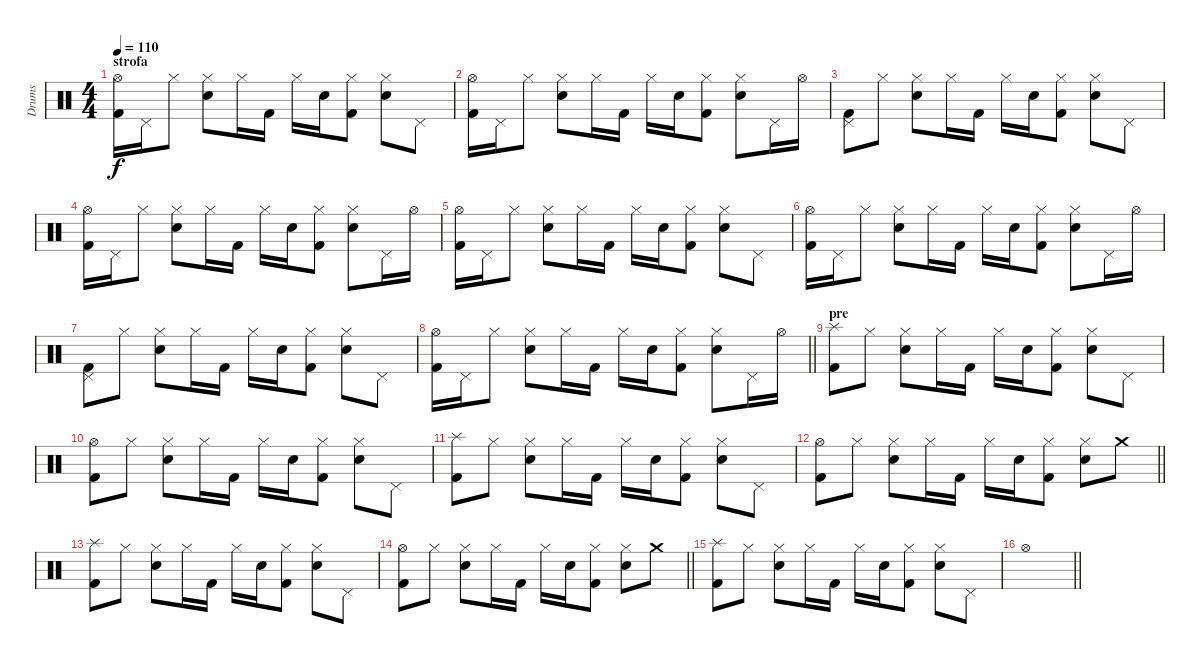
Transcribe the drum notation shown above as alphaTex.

\track ("Drums" "Drums") {instrument percussion}
\staff {score}
\articulation defaults
\ts (4 4)
\section ("" "strofa")
\tempo 110
\clef neutral
\ks c
("Hi-Hat (open)" "Kick (hit) 2").16{dy f} "Pedal Hi-Hat (hit)".16 "Hi-Hat (closed)".8 ("Hi-Hat (closed)" "Electric Snare (hit)").8 "Hi-Hat (closed)".16 "Kick (hit) 2".16 "Hi-Hat (closed)".16 "Electric Snare (hit)".16 ("Hi-Hat (closed)" "Kick (hit) 2").8 ("Hi-Hat (closed)" "Electric Snare (hit)").8 "Pedal Hi-Hat (hit)".8 |
("Hi-Hat (open)" "Kick (hit) 2").16 "Pedal Hi-Hat (hit)".16 "Hi-Hat (closed)".8 ("Hi-Hat (closed)" "Electric Snare (hit)").8 "Hi-Hat (closed)".16 "Kick (hit) 2".16 "Hi-Hat (closed)".16 "Electric Snare (hit)".16 ("Hi-Hat (closed)" "Kick (hit) 2").8 ("Hi-Hat (closed)" "Electric Snare (hit)").8 "Pedal Hi-Hat (hit)".16 "Hi-Hat (open)".16 |
("Pedal Hi-Hat (hit)" "Kick (hit) 2").8 "Hi-Hat (closed)".8 ("Hi-Hat (closed)" "Electric Snare (hit)").8 "Hi-Hat (closed)".16 "Kick (hit) 2".16 "Hi-Hat (closed)".16 "Electric Snare (hit)".16 ("Hi-Hat (closed)" "Kick (hit) 2").8 ("Hi-Hat (closed)" "Electric Snare (hit)").8 "Pedal Hi-Hat (hit)".8 |
("Hi-Hat (open)" "Kick (hit) 2").16 "Pedal Hi-Hat (hit)".16 "Hi-Hat (closed)".8 ("Hi-Hat (closed)" "Electric Snare (hit)").8 "Hi-Hat (closed)".16 "Kick (hit) 2".16 "Hi-Hat (closed)".16 "Electric Snare (hit)".16 ("Hi-Hat (closed)" "Kick (hit) 2").8 ("Hi-Hat (closed)" "Electric Snare (hit)").8 "Pedal Hi-Hat (hit)".16 "Hi-Hat (open)".16 |
("Hi-Hat (open)" "Kick (hit) 2").16 "Pedal Hi-Hat (hit)".16 "Hi-Hat (closed)".8 ("Hi-Hat (closed)" "Electric Snare (hit)").8 "Hi-Hat (closed)".16 "Kick (hit) 2".16 "Hi-Hat (closed)".16 "Electric Snare (hit)".16 ("Hi-Hat (closed)" "Kick (hit) 2").8 ("Hi-Hat (closed)" "Electric Snare (hit)").8 "Pedal Hi-Hat (hit)".8 |
("Hi-Hat (open)" "Kick (hit) 2").16 "Pedal Hi-Hat (hit)".16 "Hi-Hat (closed)".8 ("Hi-Hat (closed)" "Electric Snare (hit)").8 "Hi-Hat (closed)".16 "Kick (hit) 2".16 "Hi-Hat (closed)".16 "Electric Snare (hit)".16 ("Hi-Hat (closed)" "Kick (hit) 2").8 ("Hi-Hat (closed)" "Electric Snare (hit)").8 "Pedal Hi-Hat (hit)".16 "Hi-Hat (open)".16 |
("Pedal Hi-Hat (hit)" "Kick (hit) 2").8 "Hi-Hat (closed)".8 ("Hi-Hat (closed)" "Electric Snare (hit)").8 "Hi-Hat (closed)".16 "Kick (hit) 2".16 "Hi-Hat (closed)".16 "Electric Snare (hit)".16 ("Hi-Hat (closed)" "Kick (hit) 2").8 ("Hi-Hat (closed)" "Electric Snare (hit)").8 "Pedal Hi-Hat (hit)".8 |
\barLineRight lightlight
("Hi-Hat (open)" "Kick (hit) 2").16 "Pedal Hi-Hat (hit)".16 "Hi-Hat (closed)".8 ("Hi-Hat (closed)" "Electric Snare (hit)").8 "Hi-Hat (closed)".16 "Kick (hit) 2".16 "Hi-Hat (closed)".16 "Electric Snare (hit)".16 ("Hi-Hat (closed)" "Kick (hit) 2").8 ("Hi-Hat (closed)" "Electric Snare (hit)").8 "Pedal Hi-Hat (hit)".16 "Hi-Hat (open)".16 |
\section ("" "pre")
("Splash (hit)" "Kick (hit) 2").8 "Hi-Hat (closed)".8 ("Hi-Hat (closed)" "Snare (hit) 2").8 "Hi-Hat (closed)".16 "Kick (hit) 2".16 "Hi-Hat (closed)".16 "Snare (hit) 2".16 ("Hi-Hat (closed)" "Kick (hit) 2").8 ("Hi-Hat (closed)" "Snare (hit) 2").8 "Pedal Hi-Hat (hit)".8 |
("Hi-Hat (open)" "Kick (hit) 2").8 "Hi-Hat (closed)".8 ("Hi-Hat (closed)" "Snare (hit) 2").8 "Hi-Hat (closed)".16 "Kick (hit) 2".16 "Hi-Hat (closed)".16 "Snare (hit) 2".16 ("Hi-Hat (closed)" "Kick (hit) 2").8 ("Hi-Hat (closed)" "Snare (hit) 2").8 "Pedal Hi-Hat (hit)".8 |
("Splash (hit)" "Kick (hit) 2").8 "Hi-Hat (closed)".8 ("Hi-Hat (closed)" "Snare (hit) 2").8 "Hi-Hat (closed)".16 "Kick (hit) 2".16 "Hi-Hat (closed)".16 "Snare (hit) 2".16 ("Hi-Hat (closed)" "Kick (hit) 2").8 ("Hi-Hat (closed)" "Snare (hit) 2").8 "Pedal Hi-Hat (hit)".8 |
\barLineRight lightlight
("Hi-Hat (open)" "Kick (hit) 2").8 "Hi-Hat (closed)".8 ("Hi-Hat (closed)" "Snare (hit) 2").8 "Hi-Hat (closed)".16 "Kick (hit) 2".16 "Hi-Hat (closed)".16 "Snare (hit) 2".16 ("Hi-Hat (closed)" "Kick (hit) 2").8 ("Hi-Hat (closed)" "Snare (hit) 2").8 "Crash medium (hit)".8 |
("Splash (hit)" "Kick (hit) 2").8 "Hi-Hat (closed)".8 ("Hi-Hat (closed)" "Snare (hit) 2").8 "Hi-Hat (closed)".16 "Kick (hit) 2".16 "Hi-Hat (closed)".16 "Snare (hit) 2".16 ("Hi-Hat (closed)" "Kick (hit) 2").8 ("Hi-Hat (closed)" "Snare (hit) 2").8 "Pedal Hi-Hat (hit)".8 |
\barLineRight lightlight
("Hi-Hat (open)" "Kick (hit) 2").8 "Hi-Hat (closed)".8 ("Hi-Hat (closed)" "Snare (hit) 2").8 "Hi-Hat (closed)".16 "Kick (hit) 2".16 "Hi-Hat (closed)".16 "Snare (hit) 2".16 ("Hi-Hat (closed)" "Kick (hit) 2").8 ("Hi-Hat (closed)" "Snare (hit) 2").8 "Crash medium (hit)".8 |
("Splash (hit)" "Kick (hit) 2").8 "Hi-Hat (closed)".8 ("Hi-Hat (closed)" "Snare (hit) 2").8 "Hi-Hat (closed)".16 "Kick (hit) 2".16 "Hi-Hat (closed)".16 "Snare (hit) 2".16 ("Hi-Hat (closed)" "Kick (hit) 2").8 ("Hi-Hat (closed)" "Snare (hit) 2").8 "Pedal Hi-Hat (hit)".8 |
\barLineRight lightlight "Hi-Hat (open)".1
